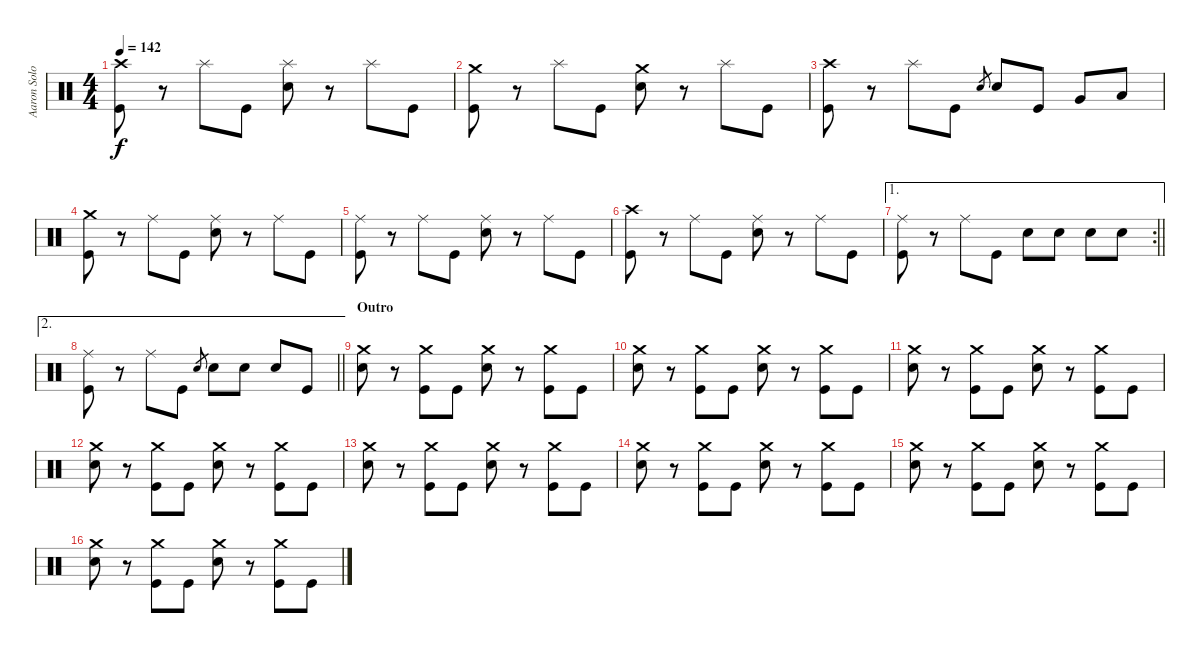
\track ("Aaron Solowoniuk" "Aaron Solo") {instrument percussion}
\staff {score}
\articulation defaults
\ts (4 4)
\tempo 142
\clef neutral
\ks c
("Crash high (hit)" "Kick (hit)").8{dy f} r.8 "Splash (hit)".8 "Kick (hit)".8 ("Splash (hit)" "Electric Snare (hit)").8 r.8 "Splash (hit)".8 "Kick (hit)".8 |
("Crash medium (hit)" "Kick (hit)").8 r.8 "Splash (hit)".8 "Kick (hit)".8 ("Crash medium (hit)" "Electric Snare (hit)").8 r.8 "Splash (hit)".8 "Kick (hit)".8 |
("Crash high (hit)" "Kick (hit)").8 r.8 "Splash (hit)".8 "Kick (hit)".8 "Electric Snare (hit)".8{gr} "Electric Snare (hit)".8 "Kick (hit)".8 "Very Low Tom (hit)".8 "Low Floor Tom (hit)".8 |
("Crash medium (hit)" "Kick (hit)").8 r.8 "Ride (middle)".8 "Kick (hit)".8 ("Ride (middle)" "Electric Snare (hit)").8 r.8 "Ride (middle)".8 "Kick (hit)".8 |
("Ride (middle)" "Kick (hit)").8 r.8 "Ride (middle)".8 "Kick (hit)".8 ("Ride (middle)" "Electric Snare (hit)").8 r.8 "Ride (middle)".8 "Kick (hit)".8 |
("Crash high (hit)" "Kick (hit)").8 r.8 "Ride (middle)".8 "Kick (hit)".8 ("Ride (middle)" "Electric Snare (hit)").8 r.8 "Ride (middle)".8 "Kick (hit)".8 |
\ae 1
\rc 2
\barLineRight lightlight
("Ride (middle)" "Kick (hit)").8 r.8 "Ride (middle)".8 "Kick (hit)".8 "Electric Snare (hit)".8 "Electric Snare (hit)".8 "Electric Snare (hit)".8 "Electric Snare (hit)".8 |
\ae 2
\barLineRight lightlight
("Ride (middle)" "Kick (hit)").8 r.8 "Ride (middle)".8 "Kick (hit)".8 "Electric Snare (hit)".8{gr} "Electric Snare (hit)".8 "Electric Snare (hit)".8 "Electric Snare (hit)".8 "Kick (hit)".8 |
\section ("" "Outro")
("Crash medium (hit)" "Electric Snare (hit)").8 r.8 ("Crash medium (hit)" "Kick (hit)").8 "Kick (hit)".8 ("Crash medium (hit)" "Electric Snare (hit)").8 r.8 ("Crash medium (hit)" "Kick (hit)").8 "Kick (hit)".8 |
("Crash medium (hit)" "Electric Snare (hit)").8 r.8 ("Crash medium (hit)" "Kick (hit)").8 "Kick (hit)".8 ("Crash medium (hit)" "Electric Snare (hit)").8 r.8 ("Crash medium (hit)" "Kick (hit)").8 "Kick (hit)".8 |
("Crash medium (hit)" "Electric Snare (hit)").8 r.8 ("Crash medium (hit)" "Kick (hit)").8 "Kick (hit)".8 ("Crash medium (hit)" "Electric Snare (hit)").8 r.8 ("Crash medium (hit)" "Kick (hit)").8 "Kick (hit)".8 |
("Crash medium (hit)" "Electric Snare (hit)").8 r.8 ("Crash medium (hit)" "Kick (hit)").8 "Kick (hit)".8 ("Crash medium (hit)" "Electric Snare (hit)").8 r.8 ("Crash medium (hit)" "Kick (hit)").8 "Kick (hit)".8 |
("Crash medium (hit)" "Electric Snare (hit)").8 r.8 ("Crash medium (hit)" "Kick (hit)").8 "Kick (hit)".8 ("Crash medium (hit)" "Electric Snare (hit)").8 r.8 ("Crash medium (hit)" "Kick (hit)").8 "Kick (hit)".8 |
("Crash medium (hit)" "Electric Snare (hit)").8 r.8 ("Crash medium (hit)" "Kick (hit)").8 "Kick (hit)".8 ("Crash medium (hit)" "Electric Snare (hit)").8 r.8 ("Crash medium (hit)" "Kick (hit)").8 "Kick (hit)".8 |
("Crash medium (hit)" "Electric Snare (hit)").8 r.8 ("Crash medium (hit)" "Kick (hit)").8 "Kick (hit)".8 ("Crash medium (hit)" "Electric Snare (hit)").8 r.8 ("Crash medium (hit)" "Kick (hit)").8 "Kick (hit)".8 |
("Crash medium (hit)" "Electric Snare (hit)").8 r.8 ("Crash medium (hit)" "Kick (hit)").8 "Kick (hit)".8 ("Crash medium (hit)" "Electric Snare (hit)").8 r.8 ("Crash medium (hit)" "Kick (hit)").8 "Kick (hit)".8
